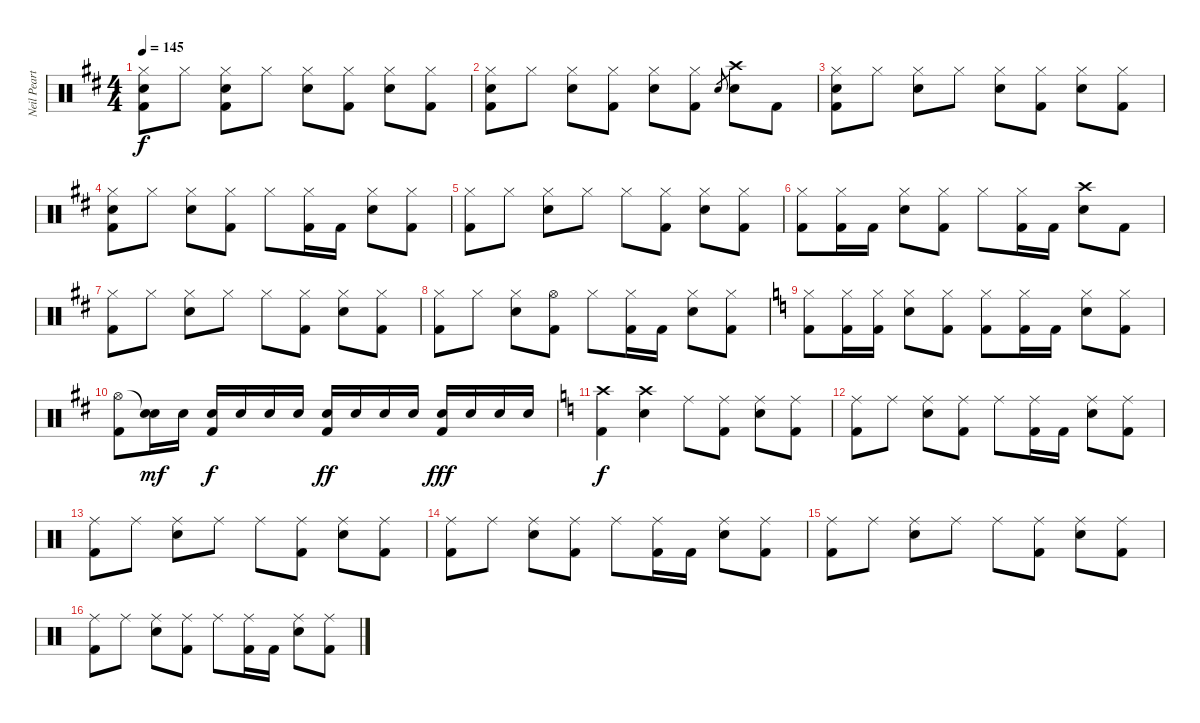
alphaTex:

\track ("Neil Peart" "Neil Peart") {instrument percussion}
\staff {score}
\articulation defaults
\ts (4 4)
\tempo 145
\clef neutral
\ks d
("Hi-Hat (closed)" "Snare (hit) 2" "Kick (hit) 2").8{dy f} "Hi-Hat (closed)".8 ("Hi-Hat (closed)" "Snare (hit) 2" "Kick (hit) 2").8 "Hi-Hat (closed)".8 ("Hi-Hat (closed)" "Snare (hit) 2").8 ("Hi-Hat (closed)" "Kick (hit) 2").8 ("Hi-Hat (closed)" "Snare (hit) 2").8 ("Hi-Hat (closed)" "Kick (hit) 2").8 |
("Hi-Hat (closed)" "Snare (hit) 2" "Kick (hit) 2").8 "Hi-Hat (closed)".8 ("Hi-Hat (closed)" "Snare (hit) 2").8 ("Hi-Hat (closed)" "Kick (hit) 2").8 ("Hi-Hat (closed)" "Snare (hit) 2").8 ("Hi-Hat (closed)" "Kick (hit) 2").8 "Snare (hit) 2".8{gr} ("Crash high (hit)" "Snare (hit) 2").8 "Kick (hit) 2".8 |
("Hi-Hat (closed)" "Snare (hit) 2" "Kick (hit) 2").8 "Hi-Hat (closed)".8 ("Hi-Hat (closed)" "Snare (hit) 2").8 "Hi-Hat (closed)".8 ("Hi-Hat (closed)" "Snare (hit) 2").8 ("Hi-Hat (closed)" "Kick (hit) 2").8 ("Hi-Hat (closed)" "Snare (hit) 2").8 ("Hi-Hat (closed)" "Kick (hit) 2").8 |
("Hi-Hat (closed)" "Snare (hit) 2" "Kick (hit) 2").8 "Hi-Hat (closed)".8 ("Hi-Hat (closed)" "Snare (hit) 2").8 ("Hi-Hat (closed)" "Kick (hit) 2").8 "Hi-Hat (closed)".8 ("Hi-Hat (closed)" "Kick (hit) 2").16 "Kick (hit) 2".16 ("Hi-Hat (closed)" "Snare (hit) 2").8 ("Hi-Hat (closed)" "Kick (hit) 2").8 |
("Hi-Hat (closed)" "Kick (hit) 2").8 "Hi-Hat (closed)".8 ("Hi-Hat (closed)" "Snare (hit) 2").8 "Hi-Hat (closed)".8 "Hi-Hat (closed)".8 ("Hi-Hat (closed)" "Kick (hit) 2").8 ("Hi-Hat (closed)" "Snare (hit) 2").8 ("Hi-Hat (closed)" "Kick (hit) 2").8 |
("Hi-Hat (closed)" "Kick (hit) 2").8 ("Hi-Hat (closed)" "Kick (hit) 2").16 "Kick (hit) 2".16 ("Hi-Hat (closed)" "Snare (hit) 2").8 ("Hi-Hat (closed)" "Kick (hit) 2").8 "Hi-Hat (closed)".8 ("Hi-Hat (closed)" "Kick (hit) 2").16 "Kick (hit) 2".16 ("Crash high (hit)" "Snare (hit) 2").8 "Kick (hit) 2".8 |
("Hi-Hat (closed)" "Kick (hit) 2").8 "Hi-Hat (closed)".8 ("Hi-Hat (closed)" "Snare (hit) 2").8 "Hi-Hat (closed)".8 "Hi-Hat (closed)".8 ("Hi-Hat (closed)" "Kick (hit) 2").8 ("Hi-Hat (closed)" "Snare (hit) 2").8 ("Hi-Hat (closed)" "Kick (hit) 2").8 |
("Hi-Hat (closed)" "Kick (hit) 2").8 "Hi-Hat (closed)".8 ("Hi-Hat (closed)" "Snare (hit) 2").8 ("Hi-Hat (open)" "Kick (hit) 2").8 "Hi-Hat (closed)".8 ("Hi-Hat (closed)" "Kick (hit) 2").16 "Kick (hit) 2".16 ("Hi-Hat (closed)" "Snare (hit) 2").8 ("Hi-Hat (closed)" "Kick (hit) 2").8 |
\ks c
("Hi-Hat (closed)" "Kick (hit) 2").8 ("Hi-Hat (closed)" "Kick (hit) 2").16 ("Hi-Hat (closed)" "Kick (hit) 2").16 ("Hi-Hat (closed)" "Snare (hit) 2").8 ("Hi-Hat (closed)" "Kick (hit) 2").8 ("Hi-Hat (closed)" "Kick (hit) 2").8 ("Hi-Hat (closed)" "Kick (hit) 2").16 "Kick (hit) 2".16 ("Hi-Hat (closed)" "Snare (hit) 2").8 ("Hi-Hat (closed)" "Kick (hit) 2").8 |
\ks d
("Hi-Hat (open)" "Kick (hit) 2").8 ("Snare (hit)"{t} "Snare (hit) 2").16{dy mf} "Snare (hit) 2".16 ("Snare (hit) 2" "Kick (hit) 2").16{dy f} "Snare (hit) 2".16 "Snare (hit) 2".16 "Snare (hit) 2".16 ("Snare (hit) 2" "Kick (hit) 2").16{dy ff} "Snare (hit) 2".16 "Snare (hit) 2".16 "Snare (hit) 2".16 ("Snare (hit) 2" "Kick (hit) 2").16{dy fff} "Snare (hit) 2".16 "Snare (hit) 2".16 "Snare (hit) 2".16 |
\ks c
("Crash high (hit)" "Kick (hit) 2").4{dy f} ("Crash high (hit)" "Snare (hit) 2").4 "Ride (middle)".8 ("Ride (middle)" "Kick (hit) 2").8 ("Ride (middle)" "Snare (hit) 2").8 ("Ride (middle)" "Kick (hit) 2").8 |
("Ride (middle)" "Kick (hit) 2").8 "Ride (middle)".8 ("Ride (middle)" "Snare (hit) 2").8 ("Ride (middle)" "Kick (hit) 2").8 "Ride (middle)".8 ("Ride (middle)" "Kick (hit) 2").16 "Kick (hit) 2".16 ("Ride (middle)" "Snare (hit) 2").8 ("Ride (middle)" "Kick (hit) 2").8 |
("Ride (middle)" "Kick (hit) 2").8 "Ride (middle)".8 ("Ride (middle)" "Snare (hit) 2").8 "Ride (middle)".8 "Ride (middle)".8 ("Ride (middle)" "Kick (hit) 2").8 ("Ride (middle)" "Snare (hit) 2").8 ("Ride (middle)" "Kick (hit) 2").8 |
("Ride (middle)" "Kick (hit) 2").8 "Ride (middle)".8 ("Ride (middle)" "Snare (hit) 2").8 ("Ride (middle)" "Kick (hit) 2").8 "Ride (middle)".8 ("Ride (middle)" "Kick (hit) 2").16 "Kick (hit) 2".16 ("Ride (middle)" "Snare (hit) 2").8 ("Ride (middle)" "Kick (hit) 2").8 |
("Ride (middle)" "Kick (hit) 2").8 "Ride (middle)".8 ("Ride (middle)" "Snare (hit) 2").8 "Ride (middle)".8 "Ride (middle)".8 ("Ride (middle)" "Kick (hit) 2").8 ("Ride (middle)" "Snare (hit) 2").8 ("Ride (middle)" "Kick (hit) 2").8 |
("Ride (middle)" "Kick (hit) 2").8 "Ride (middle)".8 ("Ride (middle)" "Snare (hit) 2").8 ("Ride (middle)" "Kick (hit) 2").8 "Ride (middle)".8 ("Ride (middle)" "Kick (hit) 2").16 "Kick (hit) 2".16 ("Ride (middle)" "Snare (hit) 2").8 ("Ride (middle)" "Kick (hit) 2").8
